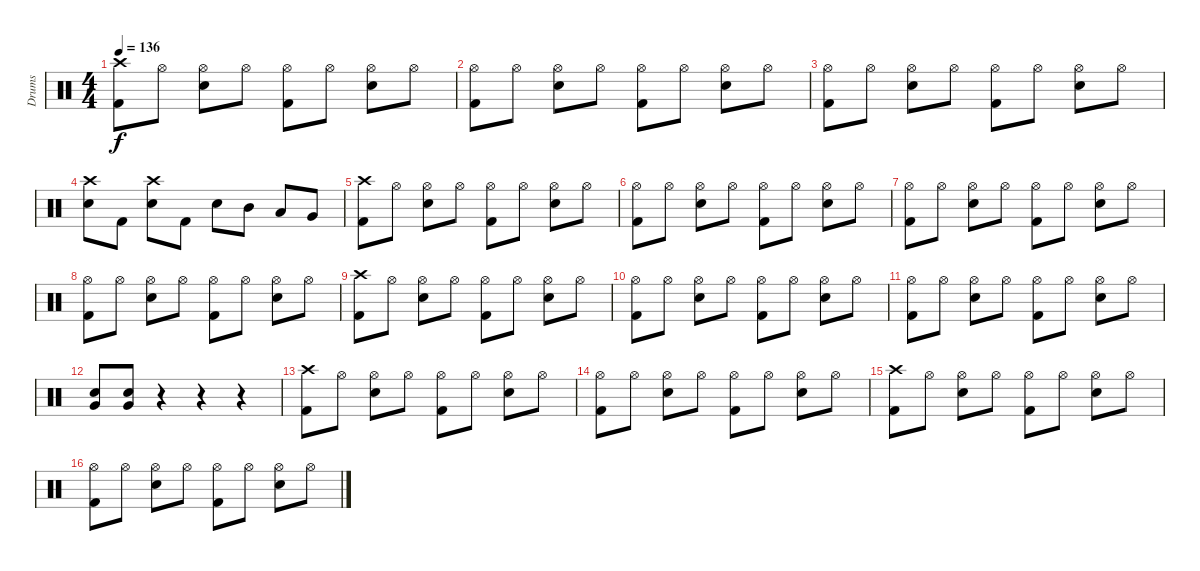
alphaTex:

\track ("Drums" "Drums") {instrument percussion}
\staff {score}
\articulation defaults
\ts (4 4)
\tempo 136
\clef neutral
\ks c
("Crash high (hit)" "Kick (hit) 2").8{dy f} "Hi-Hat (open)".8 ("Hi-Hat (open)" "Snare (hit) 2").8 "Hi-Hat (open)".8 ("Hi-Hat (open)" "Kick (hit) 2").8 "Hi-Hat (open)".8 ("Hi-Hat (open)" "Snare (hit) 2").8 "Hi-Hat (open)".8 |
("Hi-Hat (open)" "Kick (hit) 2").8 "Hi-Hat (open)".8 ("Hi-Hat (open)" "Snare (hit) 2").8 "Hi-Hat (open)".8 ("Hi-Hat (open)" "Kick (hit) 2").8 "Hi-Hat (open)".8 ("Hi-Hat (open)" "Snare (hit) 2").8 "Hi-Hat (open)".8 |
("Hi-Hat (open)" "Kick (hit) 2").8 "Hi-Hat (open)".8 ("Hi-Hat (open)" "Snare (hit) 2").8 "Hi-Hat (open)".8 ("Hi-Hat (open)" "Kick (hit) 2").8 "Hi-Hat (open)".8 ("Hi-Hat (open)" "Snare (hit) 2").8 "Hi-Hat (open)".8 |
("Crash high (hit)" "Snare (hit) 2").8 "Kick (hit) 2".8 ("Crash high (hit)" "Snare (hit) 2").8 "Kick (hit) 2".8 "Snare (hit) 2".8 "Mid Tom (hit)".8 "Low Tom (hit)".8 "Very Low Tom (hit)".8 |
("Crash high (hit)" "Kick (hit) 2").8 "Hi-Hat (open)".8 ("Hi-Hat (open)" "Snare (hit) 2").8 "Hi-Hat (open)".8 ("Hi-Hat (open)" "Kick (hit) 2").8 "Hi-Hat (open)".8 ("Hi-Hat (open)" "Snare (hit) 2").8 "Hi-Hat (open)".8 |
("Hi-Hat (open)" "Kick (hit) 2").8 "Hi-Hat (open)".8 ("Hi-Hat (open)" "Snare (hit) 2").8 "Hi-Hat (open)".8 ("Hi-Hat (open)" "Kick (hit) 2").8 "Hi-Hat (open)".8 ("Hi-Hat (open)" "Snare (hit) 2").8 "Hi-Hat (open)".8 |
("Hi-Hat (open)" "Kick (hit) 2").8 "Hi-Hat (open)".8 ("Hi-Hat (open)" "Snare (hit) 2").8 "Hi-Hat (open)".8 ("Hi-Hat (open)" "Kick (hit) 2").8 "Hi-Hat (open)".8 ("Hi-Hat (open)" "Snare (hit) 2").8 "Hi-Hat (open)".8 |
("Hi-Hat (open)" "Kick (hit) 2").8 "Hi-Hat (open)".8 ("Hi-Hat (open)" "Snare (hit) 2").8 "Hi-Hat (open)".8 ("Hi-Hat (open)" "Kick (hit) 2").8 "Hi-Hat (open)".8 ("Hi-Hat (open)" "Snare (hit) 2").8 "Hi-Hat (open)".8 |
("Crash high (hit)" "Kick (hit) 2").8 "Hi-Hat (open)".8 ("Hi-Hat (open)" "Snare (hit) 2").8 "Hi-Hat (open)".8 ("Hi-Hat (open)" "Kick (hit) 2").8 "Hi-Hat (open)".8 ("Hi-Hat (open)" "Snare (hit) 2").8 "Hi-Hat (open)".8 |
("Hi-Hat (open)" "Kick (hit) 2").8 "Hi-Hat (open)".8 ("Hi-Hat (open)" "Snare (hit) 2").8 "Hi-Hat (open)".8 ("Hi-Hat (open)" "Kick (hit) 2").8 "Hi-Hat (open)".8 ("Hi-Hat (open)" "Snare (hit) 2").8 "Hi-Hat (open)".8 |
("Hi-Hat (open)" "Kick (hit) 2").8 "Hi-Hat (open)".8 ("Hi-Hat (open)" "Snare (hit) 2").8 "Hi-Hat (open)".8 ("Hi-Hat (open)" "Kick (hit) 2").8 "Hi-Hat (open)".8 ("Hi-Hat (open)" "Snare (hit) 2").8 "Hi-Hat (open)".8 |
("Very Low Tom (hit)" "Snare (hit) 2").8 ("Very Low Tom (hit)" "Snare (hit) 2").8 r.4 r.4 r.4 |
("Crash high (hit)" "Kick (hit) 2").8 "Hi-Hat (open)".8 ("Hi-Hat (open)" "Snare (hit) 2").8 "Hi-Hat (open)".8 ("Hi-Hat (open)" "Kick (hit) 2").8 "Hi-Hat (open)".8 ("Hi-Hat (open)" "Snare (hit) 2").8 "Hi-Hat (open)".8 |
("Hi-Hat (open)" "Kick (hit) 2").8 "Hi-Hat (open)".8 ("Hi-Hat (open)" "Snare (hit) 2").8 "Hi-Hat (open)".8 ("Hi-Hat (open)" "Kick (hit) 2").8 "Hi-Hat (open)".8 ("Hi-Hat (open)" "Snare (hit) 2").8 "Hi-Hat (open)".8 |
("Crash high (hit)" "Kick (hit) 2").8 "Hi-Hat (open)".8 ("Hi-Hat (open)" "Snare (hit) 2").8 "Hi-Hat (open)".8 ("Hi-Hat (open)" "Kick (hit) 2").8 "Hi-Hat (open)".8 ("Hi-Hat (open)" "Snare (hit) 2").8 "Hi-Hat (open)".8 |
("Hi-Hat (open)" "Kick (hit) 2").8 "Hi-Hat (open)".8 ("Hi-Hat (open)" "Snare (hit) 2").8 "Hi-Hat (open)".8 ("Hi-Hat (open)" "Kick (hit) 2").8 "Hi-Hat (open)".8 ("Hi-Hat (open)" "Snare (hit) 2").8 "Hi-Hat (open)".8
